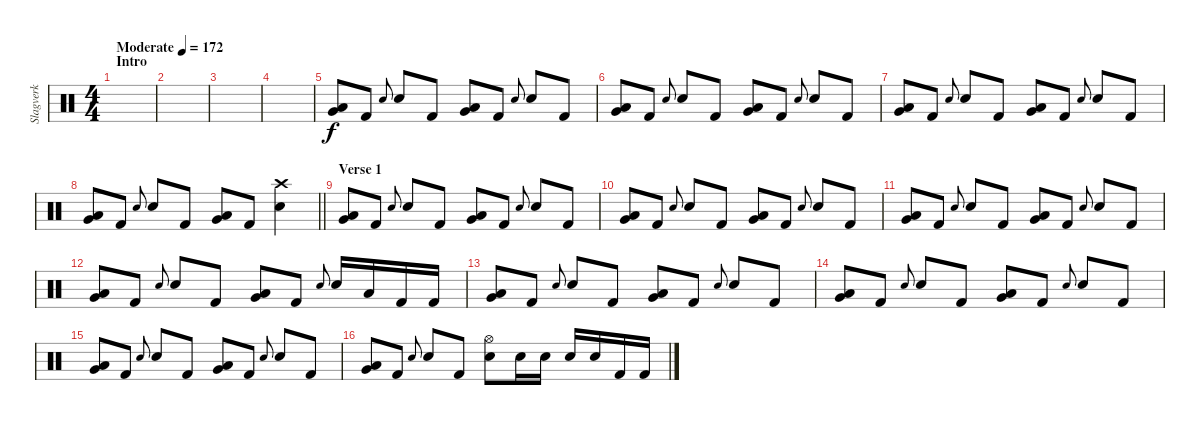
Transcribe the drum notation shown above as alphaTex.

\track ("Slagverk" "Slagverk") {instrument percussion}
\staff {score}
\articulation defaults
\ts (4 4)
\section ("" "Intro")
\tempo (172 "Moderate")
\clef neutral
\ks c
|
|
|
|
("Very Low Tom (hit)" "Low Tom (hit)").8 "Kick (hit) 2".8 "Electric Snare (hit)".8{gr onbeat} "Electric Snare (hit)".8 "Kick (hit) 2".8 ("Very Low Tom (hit)" "Low Tom (hit)").8 "Kick (hit) 2".8 "Electric Snare (hit)".8{gr onbeat} "Electric Snare (hit)".8 "Kick (hit) 2".8 |
("Very Low Tom (hit)" "Low Tom (hit)").8 "Kick (hit) 2".8 "Electric Snare (hit)".8{gr onbeat} "Electric Snare (hit)".8 "Kick (hit) 2".8 ("Very Low Tom (hit)" "Low Tom (hit)").8 "Kick (hit) 2".8 "Electric Snare (hit)".8{gr onbeat} "Electric Snare (hit)".8 "Kick (hit) 2".8 |
("Very Low Tom (hit)" "Low Tom (hit)").8 "Kick (hit) 2".8 "Electric Snare (hit)".8{gr onbeat} "Electric Snare (hit)".8 "Kick (hit) 2".8 ("Very Low Tom (hit)" "Low Tom (hit)").8 "Kick (hit) 2".8 "Electric Snare (hit)".8{gr onbeat} "Electric Snare (hit)".8 "Kick (hit) 2".8 |
\barLineRight lightlight
("Very Low Tom (hit)" "Low Tom (hit)").8 "Kick (hit) 2".8 "Electric Snare (hit)".8{gr onbeat} "Electric Snare (hit)".8 "Kick (hit) 2".8 ("Very Low Tom (hit)" "Low Tom (hit)").8 "Kick (hit) 2".8 ("Electric Snare (hit)" "Crash high (hit)").4 |
\section ("" "Verse 1")
("Very Low Tom (hit)" "Low Tom (hit)").8 "Kick (hit) 2".8 "Electric Snare (hit)".8{gr onbeat} "Electric Snare (hit)".8 "Kick (hit) 2".8 ("Very Low Tom (hit)" "Low Tom (hit)").8 "Kick (hit) 2".8 "Electric Snare (hit)".8{gr onbeat} "Electric Snare (hit)".8 "Kick (hit) 2".8 |
("Very Low Tom (hit)" "Low Tom (hit)").8 "Kick (hit) 2".8 "Electric Snare (hit)".8{gr onbeat} "Electric Snare (hit)".8 "Kick (hit) 2".8 ("Very Low Tom (hit)" "Low Tom (hit)").8 "Kick (hit) 2".8 "Electric Snare (hit)".8{gr onbeat} "Electric Snare (hit)".8 "Kick (hit) 2".8 |
("Very Low Tom (hit)" "Low Tom (hit)").8 "Kick (hit) 2".8 "Electric Snare (hit)".8{gr onbeat} "Electric Snare (hit)".8 "Kick (hit) 2".8 ("Very Low Tom (hit)" "Low Tom (hit)").8 "Kick (hit) 2".8 "Electric Snare (hit)".8{gr onbeat} "Electric Snare (hit)".8 "Kick (hit) 2".8 |
("Very Low Tom (hit)" "Low Tom (hit)").8 "Kick (hit) 2".8 "Electric Snare (hit)".8{gr onbeat} "Electric Snare (hit)".8 "Kick (hit) 2".8 ("Very Low Tom (hit)" "Low Tom (hit)").8 "Kick (hit) 2".8 "Electric Snare (hit)".8{gr onbeat} "Electric Snare (hit)".16 "Low Tom (hit)".16 "Kick (hit) 2".16 "Kick (hit) 2".16 |
("Very Low Tom (hit)" "Low Tom (hit)").8 "Kick (hit) 2".8 "Electric Snare (hit)".8{gr onbeat} "Electric Snare (hit)".8 "Kick (hit) 2".8 ("Very Low Tom (hit)" "Low Tom (hit)").8 "Kick (hit) 2".8 "Electric Snare (hit)".8{gr onbeat} "Electric Snare (hit)".8 "Kick (hit) 2".8 |
("Very Low Tom (hit)" "Low Tom (hit)").8 "Kick (hit) 2".8 "Electric Snare (hit)".8{gr onbeat} "Electric Snare (hit)".8 "Kick (hit) 2".8 ("Very Low Tom (hit)" "Low Tom (hit)").8 "Kick (hit) 2".8 "Electric Snare (hit)".8{gr onbeat} "Electric Snare (hit)".8 "Kick (hit) 2".8 |
("Very Low Tom (hit)" "Low Tom (hit)").8 "Kick (hit) 2".8 "Electric Snare (hit)".8{gr onbeat} "Electric Snare (hit)".8 "Kick (hit) 2".8 ("Very Low Tom (hit)" "Low Tom (hit)").8 "Kick (hit) 2".8 "Electric Snare (hit)".8{gr onbeat} "Electric Snare (hit)".8 "Kick (hit) 2".8 |
("Very Low Tom (hit)" "Low Tom (hit)").8 "Kick (hit) 2".8 "Electric Snare (hit)".8{gr onbeat} "Electric Snare (hit)".8 "Kick (hit) 2".8 ("Electric Snare (hit)" "Hi-Hat (open)").8 "Electric Snare (hit)".16 "Electric Snare (hit)".16 "Electric Snare (hit)".16 "Electric Snare (hit)".16 "Kick (hit) 2".16 "Kick (hit) 2".16
